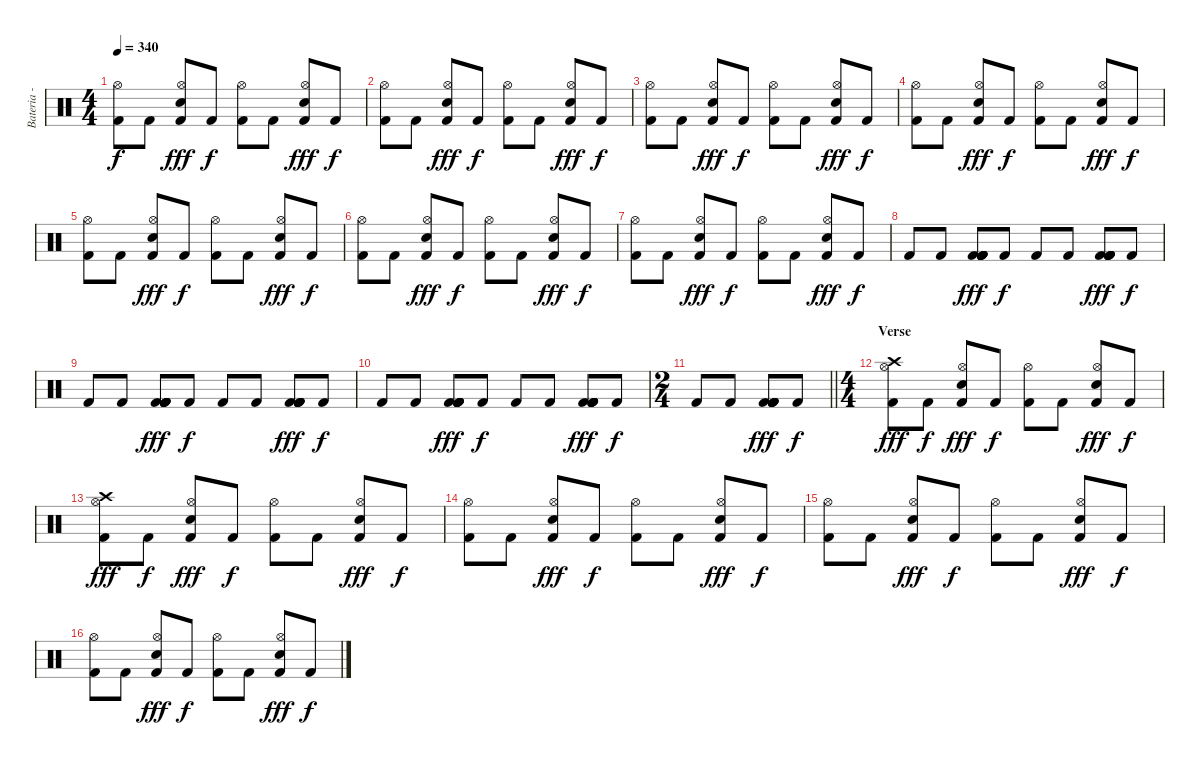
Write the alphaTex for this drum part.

\track ("Bateria - Larzon" "Bateria - ") {instrument percussion}
\staff {score}
\articulation defaults
\ts (4 4)
\tempo 340
\clef neutral
\ks c
("Kick (hit) 2" "Hi-Hat (open)").8{dy f} "Kick (hit) 2".8 ("Kick (hit) 2" "Hi-Hat (open)" "Snare (hit) 2").8{dy fff} "Kick (hit) 2".8{dy f} ("Kick (hit) 2" "Hi-Hat (open)").8 "Kick (hit) 2".8 ("Kick (hit) 2" "Hi-Hat (open)" "Snare (hit) 2").8{dy fff} "Kick (hit) 2".8{dy f} |
("Kick (hit) 2" "Hi-Hat (open)").8 "Kick (hit) 2".8 ("Kick (hit) 2" "Hi-Hat (open)" "Snare (hit) 2").8{dy fff} "Kick (hit) 2".8{dy f} ("Kick (hit) 2" "Hi-Hat (open)").8 "Kick (hit) 2".8 ("Kick (hit) 2" "Hi-Hat (open)" "Snare (hit) 2").8{dy fff} "Kick (hit) 2".8{dy f} |
("Kick (hit) 2" "Hi-Hat (open)").8 "Kick (hit) 2".8 ("Kick (hit) 2" "Hi-Hat (open)" "Snare (hit) 2").8{dy fff} "Kick (hit) 2".8{dy f} ("Kick (hit) 2" "Hi-Hat (open)").8 "Kick (hit) 2".8 ("Kick (hit) 2" "Hi-Hat (open)" "Snare (hit) 2").8{dy fff} "Kick (hit) 2".8{dy f} |
("Kick (hit) 2" "Hi-Hat (open)").8 "Kick (hit) 2".8 ("Kick (hit) 2" "Hi-Hat (open)" "Snare (hit) 2").8{dy fff} "Kick (hit) 2".8{dy f} ("Kick (hit) 2" "Hi-Hat (open)").8 "Kick (hit) 2".8 ("Kick (hit) 2" "Hi-Hat (open)" "Snare (hit) 2").8{dy fff} "Kick (hit) 2".8{dy f} |
("Kick (hit) 2" "Hi-Hat (open)").8 "Kick (hit) 2".8 ("Kick (hit) 2" "Hi-Hat (open)" "Snare (hit) 2").8{dy fff} "Kick (hit) 2".8{dy f} ("Kick (hit) 2" "Hi-Hat (open)").8 "Kick (hit) 2".8 ("Kick (hit) 2" "Hi-Hat (open)" "Snare (hit) 2").8{dy fff} "Kick (hit) 2".8{dy f} |
("Kick (hit) 2" "Hi-Hat (open)").8 "Kick (hit) 2".8 ("Kick (hit) 2" "Hi-Hat (open)" "Snare (hit) 2").8{dy fff} "Kick (hit) 2".8{dy f} ("Kick (hit) 2" "Hi-Hat (open)").8 "Kick (hit) 2".8 ("Kick (hit) 2" "Hi-Hat (open)" "Snare (hit) 2").8{dy fff} "Kick (hit) 2".8{dy f} |
("Kick (hit) 2" "Hi-Hat (open)").8 "Kick (hit) 2".8 ("Kick (hit) 2" "Hi-Hat (open)" "Snare (hit) 2").8{dy fff} "Kick (hit) 2".8{dy f} ("Kick (hit) 2" "Hi-Hat (open)").8 "Kick (hit) 2".8 ("Kick (hit) 2" "Hi-Hat (open)" "Snare (hit) 2").8{dy fff} "Kick (hit) 2".8{dy f} |
"Kick (hit) 2".8 "Kick (hit) 2".8 ("Kick (hit) 2" "Kick (hit) 2" "Kick (hit) 2" "Kick (hit) 2" "Kick (hit) 2" "Kick (hit) 2").8{dy fff} "Kick (hit) 2".8{dy f} "Kick (hit) 2".8 "Kick (hit) 2".8 ("Kick (hit) 2" "Kick (hit) 2" "Kick (hit) 2" "Kick (hit) 2" "Kick (hit) 2" "Kick (hit) 2").8{dy fff} "Kick (hit) 2".8{dy f} |
"Kick (hit) 2".8 "Kick (hit) 2".8 ("Kick (hit) 2" "Kick (hit) 2" "Kick (hit) 2" "Kick (hit) 2" "Kick (hit) 2" "Kick (hit) 2").8{dy fff} "Kick (hit) 2".8{dy f} "Kick (hit) 2".8 "Kick (hit) 2".8 ("Kick (hit) 2" "Kick (hit) 2" "Kick (hit) 2" "Kick (hit) 2" "Kick (hit) 2" "Kick (hit) 2").8{dy fff} "Kick (hit) 2".8{dy f} |
"Kick (hit) 2".8 "Kick (hit) 2".8 ("Kick (hit) 2" "Kick (hit) 2" "Kick (hit) 2" "Kick (hit) 2" "Kick (hit) 2" "Kick (hit) 2").8{dy fff} "Kick (hit) 2".8{dy f} "Kick (hit) 2".8 "Kick (hit) 2".8 ("Kick (hit) 2" "Kick (hit) 2" "Kick (hit) 2" "Kick (hit) 2" "Kick (hit) 2" "Kick (hit) 2").8{dy fff} "Kick (hit) 2".8{dy f} |
\ts (2 4)
\barLineRight lightlight "Kick (hit) 2".8 "Kick (hit) 2".8
("Kick (hit) 2" "Kick (hit) 2" "Kick (hit) 2" "Kick (hit) 2" "Kick (hit) 2" "Kick (hit) 2").8{dy fff} "Kick (hit) 2".8{dy f} |
\ts (4 4)
\section ("" "Verse")
("Crash high (hit)" "Kick (hit) 2" "Hi-Hat (open)").8{dy fff} "Kick (hit) 2".8{dy f} ("Kick (hit) 2" "Hi-Hat (open)" "Snare (hit) 2").8{dy fff} "Kick (hit) 2".8{dy f} ("Kick (hit) 2" "Hi-Hat (open)").8 "Kick (hit) 2".8 ("Kick (hit) 2" "Hi-Hat (open)" "Snare (hit) 2").8{dy fff} "Kick (hit) 2".8{dy f} |
("Crash high (hit)" "Kick (hit) 2" "Hi-Hat (open)").8{dy fff} "Kick (hit) 2".8{dy f} ("Kick (hit) 2" "Hi-Hat (open)" "Snare (hit) 2").8{dy fff} "Kick (hit) 2".8{dy f} ("Kick (hit) 2" "Hi-Hat (open)").8 "Kick (hit) 2".8 ("Kick (hit) 2" "Hi-Hat (open)" "Snare (hit) 2").8{dy fff} "Kick (hit) 2".8{dy f} |
("Kick (hit) 2" "Hi-Hat (open)").8 "Kick (hit) 2".8 ("Kick (hit) 2" "Hi-Hat (open)" "Snare (hit) 2").8{dy fff} "Kick (hit) 2".8{dy f} ("Kick (hit) 2" "Hi-Hat (open)").8 "Kick (hit) 2".8 ("Kick (hit) 2" "Hi-Hat (open)" "Snare (hit) 2").8{dy fff} "Kick (hit) 2".8{dy f} |
("Kick (hit) 2" "Hi-Hat (open)").8 "Kick (hit) 2".8 ("Kick (hit) 2" "Hi-Hat (open)" "Snare (hit) 2").8{dy fff} "Kick (hit) 2".8{dy f} ("Kick (hit) 2" "Hi-Hat (open)").8 "Kick (hit) 2".8 ("Kick (hit) 2" "Hi-Hat (open)" "Snare (hit) 2").8{dy fff} "Kick (hit) 2".8{dy f} |
("Kick (hit) 2" "Hi-Hat (open)").8 "Kick (hit) 2".8 ("Kick (hit) 2" "Hi-Hat (open)" "Snare (hit) 2").8{dy fff} "Kick (hit) 2".8{dy f} ("Kick (hit) 2" "Hi-Hat (open)").8 "Kick (hit) 2".8 ("Kick (hit) 2" "Hi-Hat (open)" "Snare (hit) 2").8{dy fff} "Kick (hit) 2".8{dy f}
